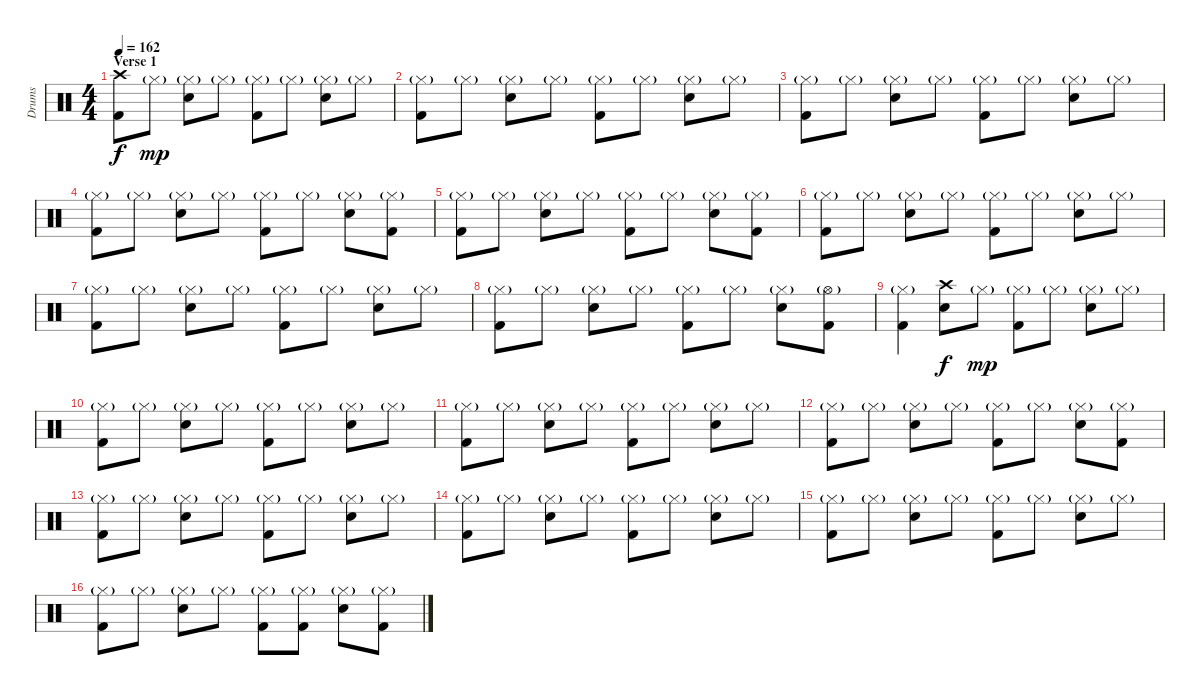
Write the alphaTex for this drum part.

\track ("Drums" "Drums") {instrument percussion}
\staff {score}
\articulation defaults
\ts (4 4)
\section ("" "Verse 1")
\tempo 162
\clef neutral
\ks c
("Crash high (hit)" "Kick (hit) 2").8{dy f} "Hi-Hat (closed)"{g}.8{dy mp} ("Hi-Hat (closed)"{g} "Snare (hit) 2").8 "Hi-Hat (closed)"{g}.8 ("Hi-Hat (closed)"{g} "Kick (hit) 2").8 "Hi-Hat (closed)"{g}.8 ("Hi-Hat (closed)"{g} "Snare (hit) 2").8 "Hi-Hat (closed)"{g}.8 |
("Hi-Hat (closed)"{g} "Kick (hit) 2").8 "Hi-Hat (closed)"{g}.8 ("Hi-Hat (closed)"{g} "Snare (hit) 2").8 "Hi-Hat (closed)"{g}.8 ("Hi-Hat (closed)"{g} "Kick (hit) 2").8 "Hi-Hat (closed)"{g}.8 ("Hi-Hat (closed)"{g} "Snare (hit) 2").8 "Hi-Hat (closed)"{g}.8 |
("Hi-Hat (closed)"{g} "Kick (hit) 2").8 "Hi-Hat (closed)"{g}.8 ("Hi-Hat (closed)"{g} "Snare (hit) 2").8 "Hi-Hat (closed)"{g}.8 ("Hi-Hat (closed)"{g} "Kick (hit) 2").8 "Hi-Hat (closed)"{g}.8 ("Hi-Hat (closed)"{g} "Snare (hit) 2").8 "Hi-Hat (closed)"{g}.8 |
("Hi-Hat (closed)"{g} "Kick (hit) 2").8 "Hi-Hat (closed)"{g}.8 ("Hi-Hat (closed)"{g} "Snare (hit) 2").8 "Hi-Hat (closed)"{g}.8 ("Hi-Hat (closed)"{g} "Kick (hit) 2").8 "Hi-Hat (closed)"{g}.8 ("Hi-Hat (closed)"{g} "Snare (hit) 2").8 ("Hi-Hat (closed)"{g} "Kick (hit) 2").8 |
("Hi-Hat (closed)"{g} "Kick (hit) 2").8 "Hi-Hat (closed)"{g}.8 ("Hi-Hat (closed)"{g} "Snare (hit) 2").8 "Hi-Hat (closed)"{g}.8 ("Hi-Hat (closed)"{g} "Kick (hit) 2").8 "Hi-Hat (closed)"{g}.8 ("Hi-Hat (closed)"{g} "Snare (hit) 2").8 ("Hi-Hat (closed)"{g} "Kick (hit) 2").8 |
("Hi-Hat (closed)"{g} "Kick (hit) 2").8 "Hi-Hat (closed)"{g}.8 ("Hi-Hat (closed)"{g} "Snare (hit) 2").8 "Hi-Hat (closed)"{g}.8 ("Hi-Hat (closed)"{g} "Kick (hit) 2").8 "Hi-Hat (closed)"{g}.8 ("Hi-Hat (closed)"{g} "Snare (hit) 2").8 "Hi-Hat (closed)"{g}.8 |
("Hi-Hat (closed)"{g} "Kick (hit) 2").8 "Hi-Hat (closed)"{g}.8 ("Hi-Hat (closed)"{g} "Snare (hit) 2").8 "Hi-Hat (closed)"{g}.8 ("Hi-Hat (closed)"{g} "Kick (hit) 2").8 "Hi-Hat (closed)"{g}.8 ("Hi-Hat (closed)"{g} "Snare (hit) 2").8 "Hi-Hat (closed)"{g}.8 |
("Hi-Hat (closed)"{g} "Kick (hit) 2").8 "Hi-Hat (closed)"{g}.8 ("Hi-Hat (closed)"{g} "Snare (hit) 2").8 "Hi-Hat (closed)"{g}.8 ("Hi-Hat (closed)"{g} "Kick (hit) 2").8 "Hi-Hat (closed)"{g}.8 ("Hi-Hat (closed)"{g} "Snare (hit) 2").8 ("Hi-Hat (open)"{g} "Kick (hit) 2").8 |
("Hi-Hat (closed)"{g} "Kick (hit) 2").4 ("Crash high (hit)" "Snare (hit) 2").8{dy f} "Hi-Hat (closed)"{g}.8{dy mp} ("Hi-Hat (closed)"{g} "Kick (hit) 2").8 "Hi-Hat (closed)"{g}.8 ("Hi-Hat (closed)"{g} "Snare (hit) 2").8 "Hi-Hat (closed)"{g}.8 |
("Hi-Hat (closed)"{g} "Kick (hit) 2").8 "Hi-Hat (closed)"{g}.8 ("Hi-Hat (closed)"{g} "Snare (hit) 2").8 "Hi-Hat (closed)"{g}.8 ("Hi-Hat (closed)"{g} "Kick (hit) 2").8 "Hi-Hat (closed)"{g}.8 ("Hi-Hat (closed)"{g} "Snare (hit) 2").8 "Hi-Hat (closed)"{g}.8 |
("Hi-Hat (closed)"{g} "Kick (hit) 2").8 "Hi-Hat (closed)"{g}.8 ("Hi-Hat (closed)"{g} "Snare (hit) 2").8 "Hi-Hat (closed)"{g}.8 ("Hi-Hat (closed)"{g} "Kick (hit) 2").8 "Hi-Hat (closed)"{g}.8 ("Hi-Hat (closed)"{g} "Snare (hit) 2").8 "Hi-Hat (closed)"{g}.8 |
("Hi-Hat (closed)"{g} "Kick (hit) 2").8 "Hi-Hat (closed)"{g}.8 ("Hi-Hat (closed)"{g} "Snare (hit) 2").8 "Hi-Hat (closed)"{g}.8 ("Hi-Hat (closed)"{g} "Kick (hit) 2").8 "Hi-Hat (closed)"{g}.8 ("Hi-Hat (closed)"{g} "Snare (hit) 2").8 ("Hi-Hat (closed)"{g} "Kick (hit) 2").8 |
("Hi-Hat (closed)"{g} "Kick (hit) 2").8 "Hi-Hat (closed)"{g}.8 ("Hi-Hat (closed)"{g} "Snare (hit) 2").8 "Hi-Hat (closed)"{g}.8 ("Hi-Hat (closed)"{g} "Kick (hit) 2").8 "Hi-Hat (closed)"{g}.8 ("Hi-Hat (closed)"{g} "Snare (hit) 2").8 "Hi-Hat (closed)"{g}.8 |
("Hi-Hat (closed)"{g} "Kick (hit) 2").8 "Hi-Hat (closed)"{g}.8 ("Hi-Hat (closed)"{g} "Snare (hit) 2").8 "Hi-Hat (closed)"{g}.8 ("Hi-Hat (closed)"{g} "Kick (hit) 2").8 "Hi-Hat (closed)"{g}.8 ("Hi-Hat (closed)"{g} "Snare (hit) 2").8 "Hi-Hat (closed)"{g}.8 |
("Hi-Hat (closed)"{g} "Kick (hit) 2").8 "Hi-Hat (closed)"{g}.8 ("Hi-Hat (closed)"{g} "Snare (hit) 2").8 "Hi-Hat (closed)"{g}.8 ("Hi-Hat (closed)"{g} "Kick (hit) 2").8 "Hi-Hat (closed)"{g}.8 ("Hi-Hat (closed)"{g} "Snare (hit) 2").8 "Hi-Hat (closed)"{g}.8 |
("Hi-Hat (closed)"{g} "Kick (hit) 2").8 "Hi-Hat (closed)"{g}.8 ("Hi-Hat (closed)"{g} "Snare (hit) 2").8 "Hi-Hat (closed)"{g}.8 ("Hi-Hat (closed)"{g} "Kick (hit) 2").8 ("Hi-Hat (closed)"{g} "Kick (hit) 2").8 ("Hi-Hat (closed)"{g} "Snare (hit) 2").8 ("Hi-Hat (closed)"{g} "Kick (hit) 2").8
